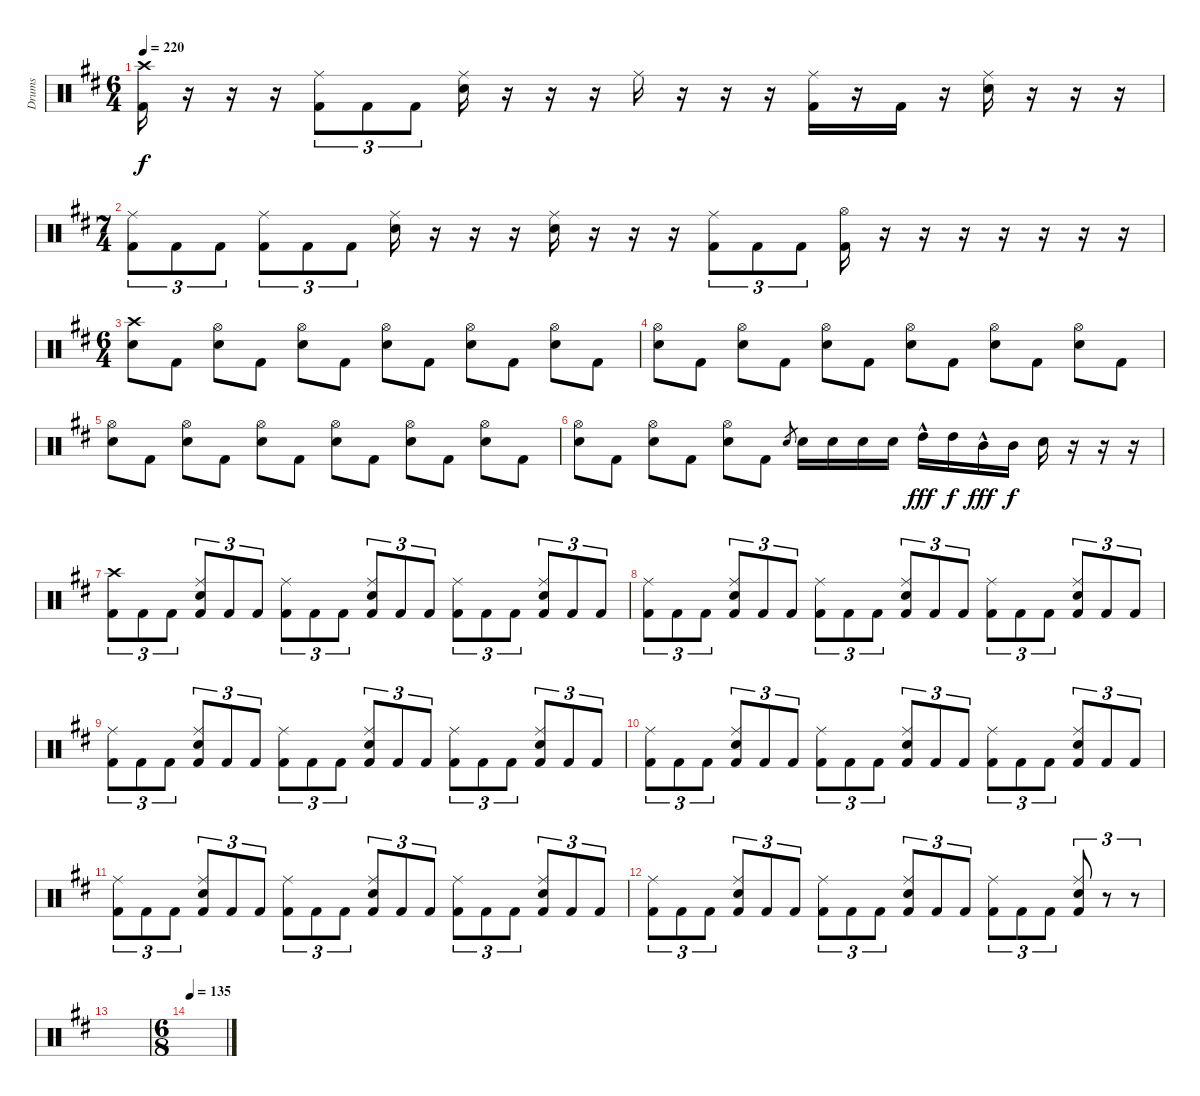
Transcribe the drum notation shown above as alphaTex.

\track ("Drums" "Drums") {instrument percussion}
\staff {score}
\articulation defaults
\ts (6 4)
\tempo 220
\clef neutral
\ks bminor
("Kick (hit) 2" "Crash high (hit)").16{dy f} r.16 r.16 r.16 ("Kick (hit) 2" "Ride (middle)").8{tu (3 2)} "Kick (hit) 2".8{tu (3 2)} "Kick (hit) 2".8{tu (3 2)} ("Electric Snare (hit)" "Ride (middle)").16 r.16 r.16 r.16 "Ride (middle)".16 r.16 r.16 r.16 ("Kick (hit) 2" "Ride (middle)").16 r.16 "Kick (hit) 2".16 r.16 ("Electric Snare (hit)" "Ride (middle)").16 r.16 r.16 r.16 |
\ts (7 4)
("Kick (hit) 2" "Ride (middle)").8{tu (3 2)} "Kick (hit) 2".8{tu (3 2)} "Kick (hit) 2".8{tu (3 2)} ("Kick (hit) 2" "Ride (middle)").8{tu (3 2)} "Kick (hit) 2".8{tu (3 2)} "Kick (hit) 2".8{tu (3 2)} ("Electric Snare (hit)" "Ride (middle)").16 r.16 r.16 r.16 ("Electric Snare (hit)" "Ride (middle)").16 r.16 r.16 r.16 ("Kick (hit) 2" "Ride (middle)").8{tu (3 2)} "Kick (hit) 2".8{tu (3 2)} "Kick (hit) 2".8{tu (3 2)} ("Kick (hit) 2" "Hi-Hat (open)").16 r.16 r.16 r.16 r.16 r.16 r.16 r.16 |
\ts (6 4)
("Electric Snare (hit)" "Crash high (hit)").8 "Kick (hit) 2".8 ("Electric Snare (hit)" "Hi-Hat (open)").8 "Kick (hit) 2".8 ("Electric Snare (hit)" "Hi-Hat (open)").8 "Kick (hit) 2".8 ("Electric Snare (hit)" "Hi-Hat (open)").8 "Kick (hit) 2".8 ("Electric Snare (hit)" "Hi-Hat (open)").8 "Kick (hit) 2".8 ("Electric Snare (hit)" "Hi-Hat (open)").8 "Kick (hit) 2".8 |
("Electric Snare (hit)" "Hi-Hat (open)").8 "Kick (hit) 2".8 ("Electric Snare (hit)" "Hi-Hat (open)").8 "Kick (hit) 2".8 ("Electric Snare (hit)" "Hi-Hat (open)").8 "Kick (hit) 2".8 ("Electric Snare (hit)" "Hi-Hat (open)").8 "Kick (hit) 2".8 ("Electric Snare (hit)" "Hi-Hat (open)").8 "Kick (hit) 2".8 ("Electric Snare (hit)" "Hi-Hat (open)").8 "Kick (hit) 2".8 |
("Electric Snare (hit)" "Hi-Hat (open)").8 "Kick (hit) 2".8 ("Electric Snare (hit)" "Hi-Hat (open)").8 "Kick (hit) 2".8 ("Electric Snare (hit)" "Hi-Hat (open)").8 "Kick (hit) 2".8 ("Electric Snare (hit)" "Hi-Hat (open)").8 "Kick (hit) 2".8 ("Electric Snare (hit)" "Hi-Hat (open)").8 "Kick (hit) 2".8 ("Electric Snare (hit)" "Hi-Hat (open)").8 "Kick (hit) 2".8 |
("Electric Snare (hit)" "Hi-Hat (open)").8 "Kick (hit) 2".8 ("Electric Snare (hit)" "Hi-Hat (open)").8 "Kick (hit) 2".8 ("Electric Snare (hit)" "Hi-Hat (open)").8 "Kick (hit) 2".8 "Electric Snare (hit)".8{gr} "Electric Snare (hit)".16 "Electric Snare (hit)".16 "Electric Snare (hit)".16 "Electric Snare (hit)".16 "High Tom (hit)"{hac}.16{dy fff} "High Tom (hit)".16{dy f} "Mid Tom (hit)"{hac}.16{dy fff} "Mid Tom (hit)".16{dy f} "Electric Snare (hit)".16 r.16 r.16 r.16 |
("Kick (hit) 2" "Crash high (hit)").8{tu (3 2)} "Kick (hit) 2".8{tu (3 2)} "Kick (hit) 2".8{tu (3 2)} ("Kick (hit) 2" "Electric Snare (hit)" "Ride (middle)").8{tu (3 2)} "Kick (hit) 2".8{tu (3 2)} "Kick (hit) 2".8{tu (3 2)} ("Kick (hit) 2" "Ride (middle)").8{tu (3 2)} "Kick (hit) 2".8{tu (3 2)} "Kick (hit) 2".8{tu (3 2)} ("Kick (hit) 2" "Electric Snare (hit)" "Ride (middle)").8{tu (3 2)} "Kick (hit) 2".8{tu (3 2)} "Kick (hit) 2".8{tu (3 2)} ("Kick (hit) 2" "Ride (middle)").8{tu (3 2)} "Kick (hit) 2".8{tu (3 2)} "Kick (hit) 2".8{tu (3 2)} ("Kick (hit) 2" "Electric Snare (hit)" "Ride (middle)").8{tu (3 2)} "Kick (hit) 2".8{tu (3 2)} "Kick (hit) 2".8{tu (3 2)} |
("Kick (hit) 2" "Ride (middle)").8{tu (3 2)} "Kick (hit) 2".8{tu (3 2)} "Kick (hit) 2".8{tu (3 2)} ("Kick (hit) 2" "Electric Snare (hit)" "Ride (middle)").8{tu (3 2)} "Kick (hit) 2".8{tu (3 2)} "Kick (hit) 2".8{tu (3 2)} ("Kick (hit) 2" "Ride (middle)").8{tu (3 2)} "Kick (hit) 2".8{tu (3 2)} "Kick (hit) 2".8{tu (3 2)} ("Kick (hit) 2" "Electric Snare (hit)" "Ride (middle)").8{tu (3 2)} "Kick (hit) 2".8{tu (3 2)} "Kick (hit) 2".8{tu (3 2)} ("Kick (hit) 2" "Ride (middle)").8{tu (3 2)} "Kick (hit) 2".8{tu (3 2)} "Kick (hit) 2".8{tu (3 2)} ("Kick (hit) 2" "Electric Snare (hit)" "Ride (middle)").8{tu (3 2)} "Kick (hit) 2".8{tu (3 2)} "Kick (hit) 2".8{tu (3 2)} |
("Kick (hit) 2" "Ride (middle)").8{tu (3 2)} "Kick (hit) 2".8{tu (3 2)} "Kick (hit) 2".8{tu (3 2)} ("Kick (hit) 2" "Electric Snare (hit)" "Ride (middle)").8{tu (3 2)} "Kick (hit) 2".8{tu (3 2)} "Kick (hit) 2".8{tu (3 2)} ("Kick (hit) 2" "Ride (middle)").8{tu (3 2)} "Kick (hit) 2".8{tu (3 2)} "Kick (hit) 2".8{tu (3 2)} ("Kick (hit) 2" "Electric Snare (hit)" "Ride (middle)").8{tu (3 2)} "Kick (hit) 2".8{tu (3 2)} "Kick (hit) 2".8{tu (3 2)} ("Kick (hit) 2" "Ride (middle)").8{tu (3 2)} "Kick (hit) 2".8{tu (3 2)} "Kick (hit) 2".8{tu (3 2)} ("Kick (hit) 2" "Electric Snare (hit)" "Ride (middle)").8{tu (3 2)} "Kick (hit) 2".8{tu (3 2)} "Kick (hit) 2".8{tu (3 2)} |
("Kick (hit) 2" "Ride (middle)").8{tu (3 2)} "Kick (hit) 2".8{tu (3 2)} "Kick (hit) 2".8{tu (3 2)} ("Kick (hit) 2" "Electric Snare (hit)" "Ride (middle)").8{tu (3 2)} "Kick (hit) 2".8{tu (3 2)} "Kick (hit) 2".8{tu (3 2)} ("Kick (hit) 2" "Ride (middle)").8{tu (3 2)} "Kick (hit) 2".8{tu (3 2)} "Kick (hit) 2".8{tu (3 2)} ("Kick (hit) 2" "Electric Snare (hit)" "Ride (middle)").8{tu (3 2)} "Kick (hit) 2".8{tu (3 2)} "Kick (hit) 2".8{tu (3 2)} ("Kick (hit) 2" "Ride (middle)").8{tu (3 2)} "Kick (hit) 2".8{tu (3 2)} "Kick (hit) 2".8{tu (3 2)} ("Kick (hit) 2" "Electric Snare (hit)" "Ride (middle)").8{tu (3 2)} "Kick (hit) 2".8{tu (3 2)} "Kick (hit) 2".8{tu (3 2)} |
("Kick (hit) 2" "Ride (middle)").8{tu (3 2)} "Kick (hit) 2".8{tu (3 2)} "Kick (hit) 2".8{tu (3 2)} ("Kick (hit) 2" "Electric Snare (hit)" "Ride (middle)").8{tu (3 2)} "Kick (hit) 2".8{tu (3 2)} "Kick (hit) 2".8{tu (3 2)} ("Kick (hit) 2" "Ride (middle)").8{tu (3 2)} "Kick (hit) 2".8{tu (3 2)} "Kick (hit) 2".8{tu (3 2)} ("Kick (hit) 2" "Electric Snare (hit)" "Ride (middle)").8{tu (3 2)} "Kick (hit) 2".8{tu (3 2)} "Kick (hit) 2".8{tu (3 2)} ("Kick (hit) 2" "Ride (middle)").8{tu (3 2)} "Kick (hit) 2".8{tu (3 2)} "Kick (hit) 2".8{tu (3 2)} ("Kick (hit) 2" "Electric Snare (hit)" "Ride (middle)").8{tu (3 2)} "Kick (hit) 2".8{tu (3 2)} "Kick (hit) 2".8{tu (3 2)} |
("Kick (hit) 2" "Ride (middle)").8{tu (3 2)} "Kick (hit) 2".8{tu (3 2)} "Kick (hit) 2".8{tu (3 2)} ("Kick (hit) 2" "Electric Snare (hit)" "Ride (middle)").8{tu (3 2)} "Kick (hit) 2".8{tu (3 2)} "Kick (hit) 2".8{tu (3 2)} ("Kick (hit) 2" "Ride (middle)").8{tu (3 2)} "Kick (hit) 2".8{tu (3 2)} "Kick (hit) 2".8{tu (3 2)} ("Kick (hit) 2" "Electric Snare (hit)" "Ride (middle)").8{tu (3 2)} "Kick (hit) 2".8{tu (3 2)} "Kick (hit) 2".8{tu (3 2)} ("Kick (hit) 2" "Ride (middle)").8{tu (3 2)} "Kick (hit) 2".8{tu (3 2)} "Kick (hit) 2".8{tu (3 2)} ("Kick (hit) 2" "Electric Snare (hit)" "Ride (middle)").8{tu (3 2)} r.8{tu (3 2)} r.8{tu (3 2)} |
|
\ts (6 8)
\tempo 135
